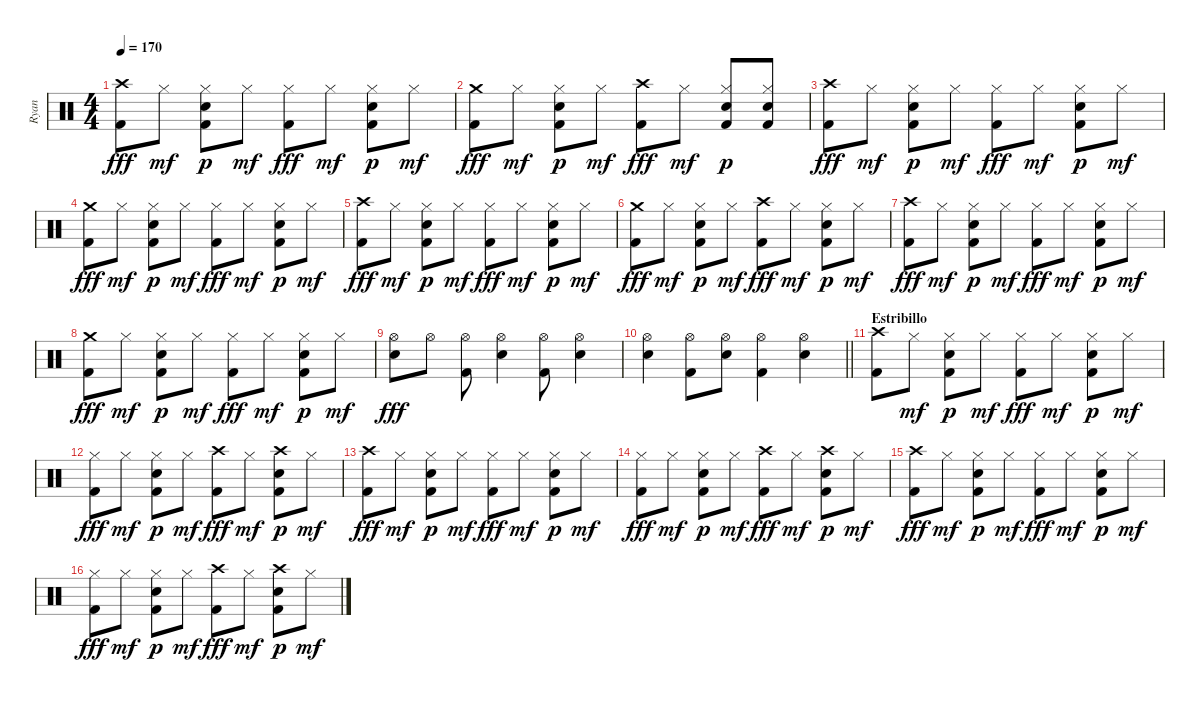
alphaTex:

\track ("Ryan" "Ryan") {instrument percussion}
\staff {score}
\articulation defaults
\ts (4 4)
\tempo 170
\clef neutral
\ks c
("Kick (hit) 2" "Crash high (hit)").8{dy fff} "Hi-Hat (closed)".8{dy mf} ("Snare (hit) 2" "Hi-Hat (closed)" "Kick (hit) 2").8{dy p} "Hi-Hat (closed)".8{dy mf} ("Kick (hit) 2" "Hi-Hat (closed)").8{dy fff} "Hi-Hat (closed)".8{dy mf} ("Snare (hit) 2" "Hi-Hat (closed)" "Kick (hit) 2").8{dy p} "Hi-Hat (closed)".8{dy mf} |
("Kick (hit) 2" "Crash medium (hit)").8{dy fff} "Hi-Hat (closed)".8{dy mf} ("Snare (hit) 2" "Hi-Hat (closed)" "Kick (hit) 2").8{dy p} "Hi-Hat (closed)".8{dy mf} ("Kick (hit) 2" "Crash high (hit)").8{dy fff} "Hi-Hat (closed)".8{dy mf} ("Snare (hit) 2" "Hi-Hat (closed)" "Kick (hit) 2").8{dy p} ("Snare (hit) 2" "Hi-Hat (closed)" "Kick (hit) 2").8 |
("Kick (hit) 2" "Crash high (hit)").8{dy fff} "Hi-Hat (closed)".8{dy mf} ("Snare (hit) 2" "Hi-Hat (closed)" "Kick (hit) 2").8{dy p} "Hi-Hat (closed)".8{dy mf} ("Kick (hit) 2" "Hi-Hat (closed)").8{dy fff} "Hi-Hat (closed)".8{dy mf} ("Snare (hit) 2" "Hi-Hat (closed)" "Kick (hit) 2").8{dy p} "Hi-Hat (closed)".8{dy mf} |
("Kick (hit) 2" "Crash medium (hit)").8{dy fff} "Hi-Hat (closed)".8{dy mf} ("Snare (hit) 2" "Hi-Hat (closed)" "Kick (hit) 2").8{dy p} "Hi-Hat (closed)".8{dy mf} ("Kick (hit) 2" "Hi-Hat (closed)").8{dy fff} "Hi-Hat (closed)".8{dy mf} ("Snare (hit) 2" "Hi-Hat (closed)" "Kick (hit) 2").8{dy p} "Hi-Hat (closed)".8{dy mf} |
("Kick (hit) 2" "Crash high (hit)").8{dy fff} "Hi-Hat (closed)".8{dy mf} ("Snare (hit) 2" "Hi-Hat (closed)" "Kick (hit) 2").8{dy p} "Hi-Hat (closed)".8{dy mf} ("Kick (hit) 2" "Hi-Hat (closed)").8{dy fff} "Hi-Hat (closed)".8{dy mf} ("Snare (hit) 2" "Hi-Hat (closed)" "Kick (hit) 2").8{dy p} "Hi-Hat (closed)".8{dy mf} |
("Kick (hit) 2" "Crash medium (hit)").8{dy fff} "Hi-Hat (closed)".8{dy mf} ("Snare (hit) 2" "Hi-Hat (closed)" "Kick (hit) 2").8{dy p} "Hi-Hat (closed)".8{dy mf} ("Kick (hit) 2" "Crash high (hit)").8{dy fff} "Hi-Hat (closed)".8{dy mf} ("Snare (hit) 2" "Hi-Hat (closed)" "Kick (hit) 2").8{dy p} "Hi-Hat (closed)".8{dy mf} |
("Kick (hit) 2" "Crash high (hit)").8{dy fff} "Hi-Hat (closed)".8{dy mf} ("Snare (hit) 2" "Hi-Hat (closed)" "Kick (hit) 2").8{dy p} "Hi-Hat (closed)".8{dy mf} ("Kick (hit) 2" "Hi-Hat (closed)").8{dy fff} "Hi-Hat (closed)".8{dy mf} ("Snare (hit) 2" "Hi-Hat (closed)" "Kick (hit) 2").8{dy p} "Hi-Hat (closed)".8{dy mf} |
("Kick (hit) 2" "Crash medium (hit)").8{dy fff} "Hi-Hat (closed)".8{dy mf} ("Snare (hit) 2" "Hi-Hat (closed)" "Kick (hit) 2").8{dy p} "Hi-Hat (closed)".8{dy mf} ("Kick (hit) 2" "Hi-Hat (closed)").8{dy fff} "Hi-Hat (closed)".8{dy mf} ("Snare (hit) 2" "Hi-Hat (closed)" "Kick (hit) 2").8{dy p} "Hi-Hat (closed)".8{dy mf} |
("Hi-Hat (open)" "Snare (hit) 2").8{dy fff} "Hi-Hat (open)".8 ("Hi-Hat (open)" "Kick (hit) 2").8 ("Hi-Hat (open)" "Snare (hit) 2").4 ("Hi-Hat (open)" "Kick (hit) 2").8 ("Hi-Hat (open)" "Snare (hit) 2").4 |
\barLineRight lightlight
("Hi-Hat (open)" "Snare (hit) 2").4 ("Kick (hit) 2" "Hi-Hat (open)").8 ("Snare (hit) 2" "Hi-Hat (open)").8 ("Kick (hit) 2" "Hi-Hat (open)").4 ("Hi-Hat (open)" "Snare (hit) 2").4 |
\section ("" "Estribillo")
("Kick (hit) 2" "Crash high (hit)").8 "Hi-Hat (closed)".8{dy mf} ("Snare (hit) 2" "Hi-Hat (closed)" "Kick (hit) 2").8{dy p} "Hi-Hat (closed)".8{dy mf} ("Kick (hit) 2" "Hi-Hat (closed)").8{dy fff} "Hi-Hat (closed)".8{dy mf} ("Snare (hit) 2" "Hi-Hat (closed)" "Kick (hit) 2").8{dy p} "Hi-Hat (closed)".8{dy mf} |
("Kick (hit) 2" "Hi-Hat (closed)").8{dy fff} "Hi-Hat (closed)".8{dy mf} ("Snare (hit) 2" "Hi-Hat (closed)" "Kick (hit) 2").8{dy p} "Hi-Hat (closed)".8{dy mf} ("Kick (hit) 2" "Crash high (hit)").8{dy fff} "Hi-Hat (closed)".8{dy mf} ("Snare (hit) 2" "Crash high (hit)" "Kick (hit) 2").8{dy p} "Hi-Hat (closed)".8{dy mf} |
("Kick (hit) 2" "Crash high (hit)").8{dy fff} "Hi-Hat (closed)".8{dy mf} ("Snare (hit) 2" "Hi-Hat (closed)" "Kick (hit) 2").8{dy p} "Hi-Hat (closed)".8{dy mf} ("Kick (hit) 2" "Hi-Hat (closed)").8{dy fff} "Hi-Hat (closed)".8{dy mf} ("Snare (hit) 2" "Hi-Hat (closed)" "Kick (hit) 2").8{dy p} "Hi-Hat (closed)".8{dy mf} |
("Kick (hit) 2" "Hi-Hat (closed)").8{dy fff} "Hi-Hat (closed)".8{dy mf} ("Snare (hit) 2" "Hi-Hat (closed)" "Kick (hit) 2").8{dy p} "Hi-Hat (closed)".8{dy mf} ("Kick (hit) 2" "Crash high (hit)").8{dy fff} "Hi-Hat (closed)".8{dy mf} ("Snare (hit) 2" "Crash high (hit)" "Kick (hit) 2").8{dy p} "Hi-Hat (closed)".8{dy mf} |
("Kick (hit) 2" "Crash high (hit)").8{dy fff} "Hi-Hat (closed)".8{dy mf} ("Snare (hit) 2" "Hi-Hat (closed)" "Kick (hit) 2").8{dy p} "Hi-Hat (closed)".8{dy mf} ("Kick (hit) 2" "Hi-Hat (closed)").8{dy fff} "Hi-Hat (closed)".8{dy mf} ("Snare (hit) 2" "Hi-Hat (closed)" "Kick (hit) 2").8{dy p} "Hi-Hat (closed)".8{dy mf} |
("Kick (hit) 2" "Hi-Hat (closed)").8{dy fff} "Hi-Hat (closed)".8{dy mf} ("Snare (hit) 2" "Hi-Hat (closed)" "Kick (hit) 2").8{dy p} "Hi-Hat (closed)".8{dy mf} ("Kick (hit) 2" "Crash high (hit)").8{dy fff} "Hi-Hat (closed)".8{dy mf} ("Snare (hit) 2" "Crash high (hit)" "Kick (hit) 2").8{dy p} "Hi-Hat (closed)".8{dy mf}
